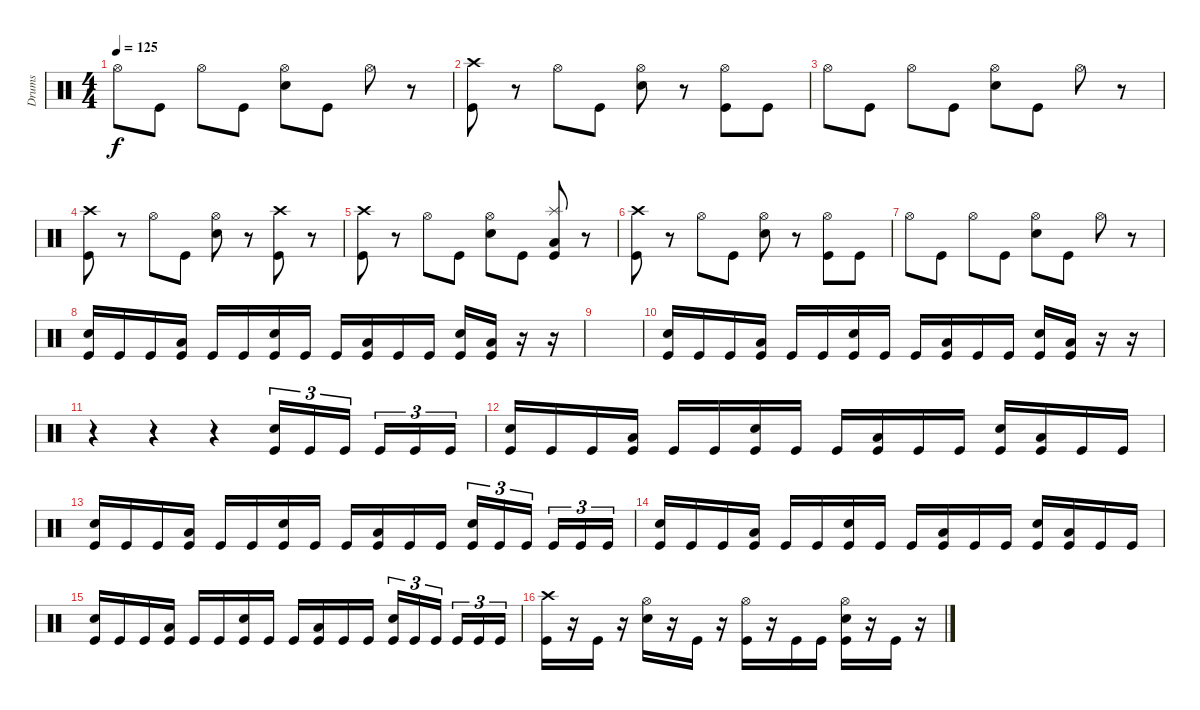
\track ("Drums" "Drums") {instrument percussion}
\staff {score}
\articulation defaults
\ts (4 4)
\tempo 125
\clef neutral
\ks c "Hi-Hat (open)".8{dy f} "Kick (hit)".8 "Hi-Hat (open)".8 "Kick (hit)".8
("Hi-Hat (open)" "Snare (hit) 2").8 "Kick (hit)".8 "Hi-Hat (open)".8 r.8 |
("Crash high (hit)" "Kick (hit)").8 r.8 "Hi-Hat (open)".8 "Kick (hit)".8 ("Hi-Hat (open)" "Snare (hit) 2").8 r.8 ("Hi-Hat (open)" "Kick (hit)").8 "Kick (hit)".8 |
"Hi-Hat (open)".8 "Kick (hit)".8 "Hi-Hat (open)".8 "Kick (hit)".8 ("Hi-Hat (open)" "Snare (hit) 2").8 "Kick (hit)".8 "Hi-Hat (open)".8 r.8 |
("Crash high (hit)" "Kick (hit)").8 r.8 "Hi-Hat (open)".8 "Kick (hit)".8 ("Hi-Hat (open)" "Snare (hit) 2").8 r.8 ("Crash high (hit)" "Kick (hit)").8 r.8 |
("Crash high (hit)" "Kick (hit)").8 r.8 "Hi-Hat (open)".8 "Kick (hit)".8 ("Hi-Hat (open)" "Snare (hit) 2").8 "Kick (hit)".8 ("Splash (hit)" "Low Floor Tom (hit)" "Kick (hit)").8 r.8 |
("Crash high (hit)" "Kick (hit)").8 r.8 "Hi-Hat (open)".8 "Kick (hit)".8 ("Hi-Hat (open)" "Snare (hit) 2").8 r.8 ("Hi-Hat (open)" "Kick (hit)").8 "Kick (hit)".8 |
"Hi-Hat (open)".8 "Kick (hit)".8 "Hi-Hat (open)".8 "Kick (hit)".8 ("Hi-Hat (open)" "Snare (hit) 2").8 "Kick (hit)".8 "Hi-Hat (open)".8 r.8 |
("Snare (hit) 2" "Kick (hit)").16 "Kick (hit)".16 "Kick (hit)".16 ("Low Floor Tom (hit)" "Kick (hit)").16 "Kick (hit)".16 "Kick (hit)".16 ("Snare (hit) 2" "Kick (hit)").16 "Kick (hit)".16 "Kick (hit)".16 ("Low Floor Tom (hit)" "Kick (hit)").16 "Kick (hit)".16 "Kick (hit)".16 ("Snare (hit) 2" "Kick (hit)").16 ("Low Floor Tom (hit)" "Kick (hit)").16 r.16 r.16 |
|
("Snare (hit) 2" "Kick (hit)").16 "Kick (hit)".16 "Kick (hit)".16 ("Low Floor Tom (hit)" "Kick (hit)").16 "Kick (hit)".16 "Kick (hit)".16 ("Snare (hit) 2" "Kick (hit)").16 "Kick (hit)".16 "Kick (hit)".16 ("Low Floor Tom (hit)" "Kick (hit)").16 "Kick (hit)".16 "Kick (hit)".16 ("Snare (hit) 2" "Kick (hit)").16 ("Low Floor Tom (hit)" "Kick (hit)").16 r.16 r.16 |
r.4 r.4 r.4 ("Snare (hit) 2" "Kick (hit)").16{tu (3 2)} "Kick (hit)".16{tu (3 2)} "Kick (hit)".16{tu (3 2)} "Kick (hit)".16{tu (3 2)} "Kick (hit)".16{tu (3 2)} "Kick (hit)".16{tu (3 2)} |
("Snare (hit) 2" "Kick (hit)").16 "Kick (hit)".16 "Kick (hit)".16 ("Low Floor Tom (hit)" "Kick (hit)").16 "Kick (hit)".16 "Kick (hit)".16 ("Snare (hit) 2" "Kick (hit)").16 "Kick (hit)".16 "Kick (hit)".16 ("Low Floor Tom (hit)" "Kick (hit)").16 "Kick (hit)".16 "Kick (hit)".16 ("Snare (hit) 2" "Kick (hit)").16 ("Low Floor Tom (hit)" "Kick (hit)").16 "Kick (hit)".16 "Kick (hit)".16 |
("Snare (hit) 2" "Kick (hit)").16 "Kick (hit)".16 "Kick (hit)".16 ("Low Floor Tom (hit)" "Kick (hit)").16 "Kick (hit)".16 "Kick (hit)".16 ("Snare (hit) 2" "Kick (hit)").16 "Kick (hit)".16 "Kick (hit)".16 ("Low Floor Tom (hit)" "Kick (hit)").16 "Kick (hit)".16 "Kick (hit)".16 ("Snare (hit) 2" "Kick (hit)").16{tu (3 2)} "Kick (hit)".16{tu (3 2)} "Kick (hit)".16{tu (3 2)} "Kick (hit)".16{tu (3 2)} "Kick (hit)".16{tu (3 2)} "Kick (hit)".16{tu (3 2)} |
("Snare (hit) 2" "Kick (hit)").16 "Kick (hit)".16 "Kick (hit)".16 ("Low Floor Tom (hit)" "Kick (hit)").16 "Kick (hit)".16 "Kick (hit)".16 ("Snare (hit) 2" "Kick (hit)").16 "Kick (hit)".16 "Kick (hit)".16 ("Low Floor Tom (hit)" "Kick (hit)").16 "Kick (hit)".16 "Kick (hit)".16 ("Snare (hit) 2" "Kick (hit)").16 ("Low Floor Tom (hit)" "Kick (hit)").16 "Kick (hit)".16 "Kick (hit)".16 |
("Snare (hit) 2" "Kick (hit)").16 "Kick (hit)".16 "Kick (hit)".16 ("Low Floor Tom (hit)" "Kick (hit)").16 "Kick (hit)".16 "Kick (hit)".16 ("Snare (hit) 2" "Kick (hit)").16 "Kick (hit)".16 "Kick (hit)".16 ("Low Floor Tom (hit)" "Kick (hit)").16 "Kick (hit)".16 "Kick (hit)".16 ("Snare (hit) 2" "Kick (hit)").16{tu (3 2)} "Kick (hit)".16{tu (3 2)} "Kick (hit)".16{tu (3 2)} "Kick (hit)".16{tu (3 2)} "Kick (hit)".16{tu (3 2)} "Kick (hit)".16{tu (3 2)} |
("Crash high (hit)" "Kick (hit)").16 r.16 "Kick (hit)".16 r.16 ("Hi-Hat (open)" "Snare (hit) 2").16 r.16 "Kick (hit)".16 r.16 ("Hi-Hat (open)" "Kick (hit)").16 r.16 "Kick (hit)".16 "Kick (hit)".16 ("Hi-Hat (open)" "Snare (hit) 2" "Kick (hit)").16 r.16 "Kick (hit)".16 r.16
